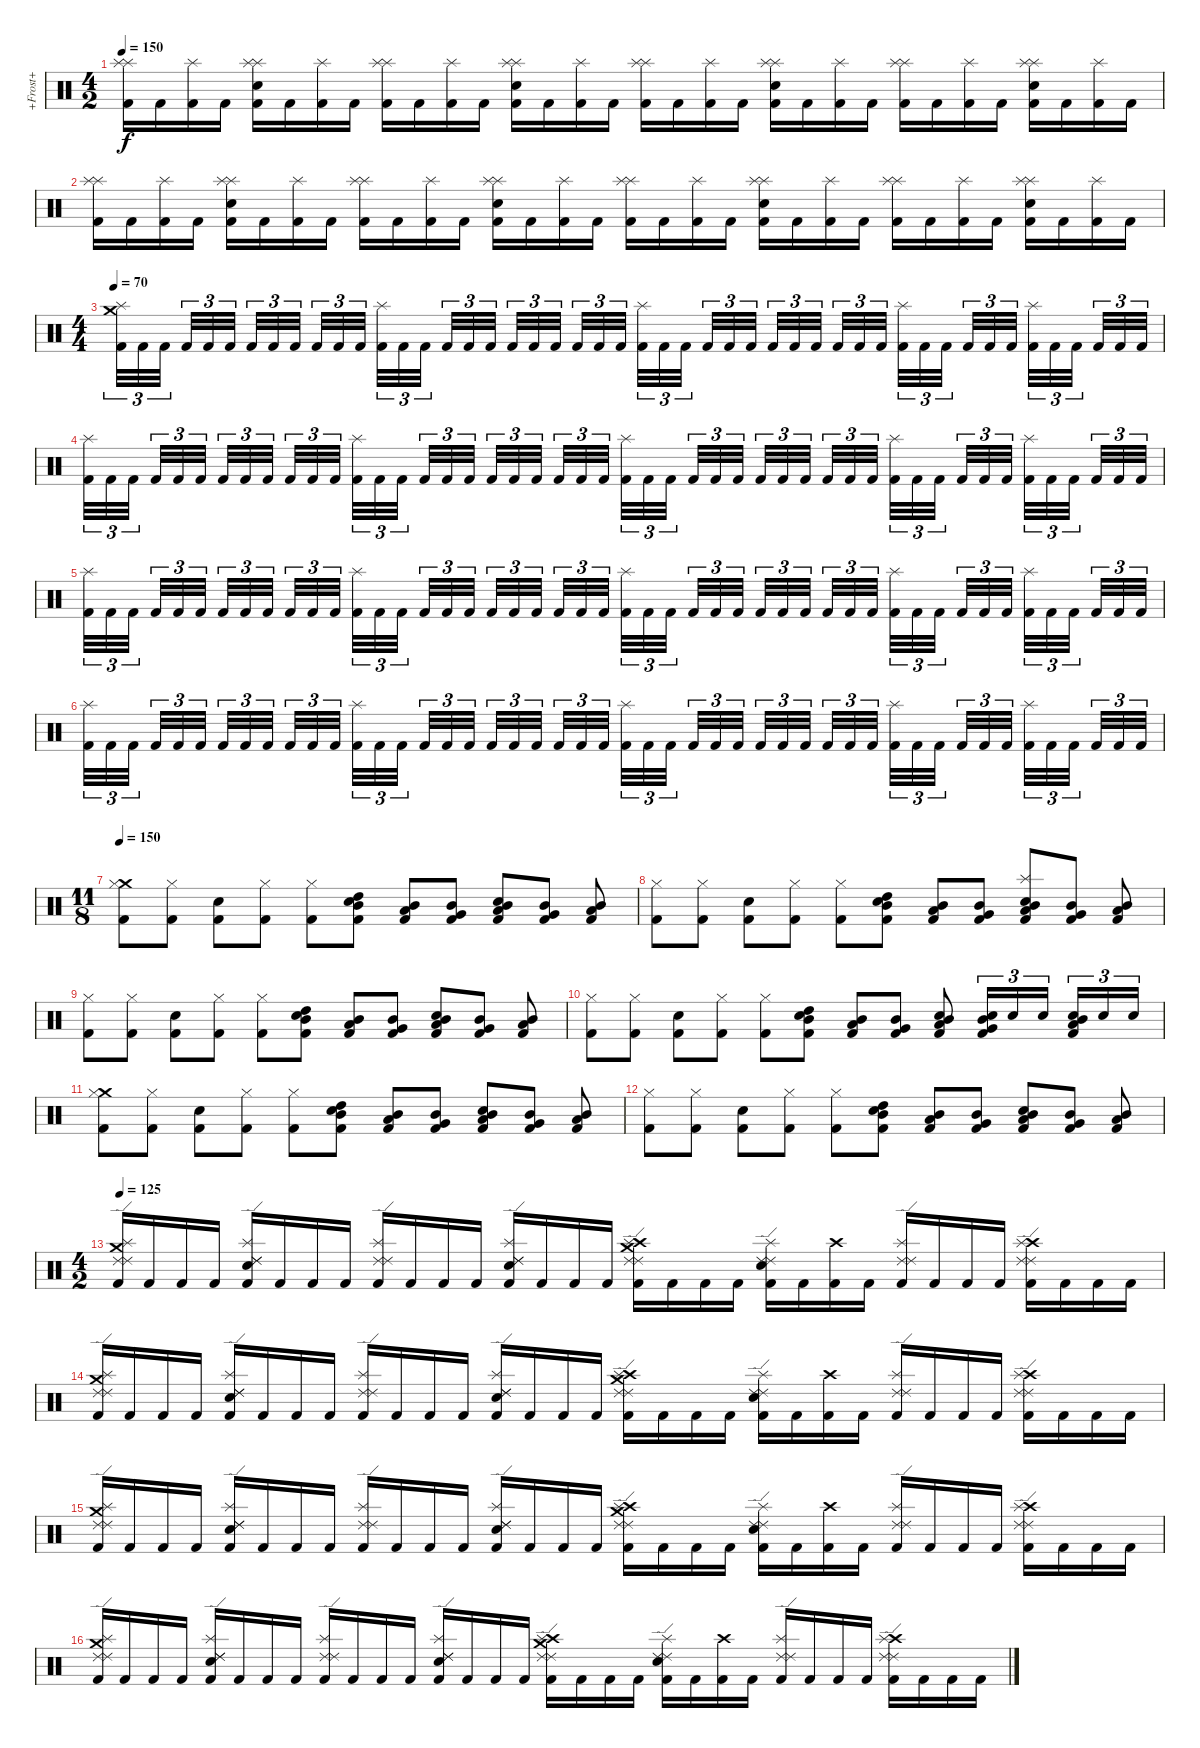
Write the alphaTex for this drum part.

\track ("+Frost+" "+Frost+") {instrument percussion}
\staff {score}
\articulation defaults
\ts (4 2)
\tempo 150
\clef neutral
\ks c
("Kick (hit) 2" "Splash (hit)" "Splash (hit)").16{dy f} "Kick (hit) 2".16 ("Kick (hit) 2" "Splash (hit)").16 "Kick (hit) 2".16 ("Kick (hit) 2" "Splash (hit)" "Splash (hit)" "Electric Snare (hit)").16 "Kick (hit) 2".16 ("Kick (hit) 2" "Splash (hit)").16 "Kick (hit) 2".16 ("Kick (hit) 2" "Splash (hit)" "Splash (hit)").16 "Kick (hit) 2".16 ("Kick (hit) 2" "Splash (hit)").16 "Kick (hit) 2".16 ("Kick (hit) 2" "Splash (hit)" "Splash (hit)" "Electric Snare (hit)").16 "Kick (hit) 2".16 ("Kick (hit) 2" "Splash (hit)").16 "Kick (hit) 2".16 ("Kick (hit) 2" "Splash (hit)" "Splash (hit)").16 "Kick (hit) 2".16 ("Kick (hit) 2" "Splash (hit)").16 "Kick (hit) 2".16 ("Kick (hit) 2" "Splash (hit)" "Splash (hit)" "Electric Snare (hit)").16 "Kick (hit) 2".16 ("Kick (hit) 2" "Splash (hit)").16 "Kick (hit) 2".16 ("Kick (hit) 2" "Splash (hit)" "Splash (hit)").16 "Kick (hit) 2".16 ("Kick (hit) 2" "Splash (hit)").16 "Kick (hit) 2".16 ("Kick (hit) 2" "Splash (hit)" "Splash (hit)" "Electric Snare (hit)").16 "Kick (hit) 2".16 ("Kick (hit) 2" "Splash (hit)").16 "Kick (hit) 2".16 |
("Kick (hit) 2" "Splash (hit)" "Splash (hit)").16 "Kick (hit) 2".16 ("Kick (hit) 2" "Splash (hit)").16 "Kick (hit) 2".16 ("Kick (hit) 2" "Splash (hit)" "Splash (hit)" "Electric Snare (hit)").16 "Kick (hit) 2".16 ("Kick (hit) 2" "Splash (hit)").16 "Kick (hit) 2".16 ("Kick (hit) 2" "Splash (hit)" "Splash (hit)").16 "Kick (hit) 2".16 ("Kick (hit) 2" "Splash (hit)").16 "Kick (hit) 2".16 ("Kick (hit) 2" "Splash (hit)" "Splash (hit)" "Electric Snare (hit)").16 "Kick (hit) 2".16 ("Kick (hit) 2" "Splash (hit)").16 "Kick (hit) 2".16 ("Kick (hit) 2" "Splash (hit)" "Splash (hit)").16 "Kick (hit) 2".16 ("Kick (hit) 2" "Splash (hit)").16 "Kick (hit) 2".16 ("Kick (hit) 2" "Splash (hit)" "Splash (hit)" "Electric Snare (hit)").16 "Kick (hit) 2".16 ("Kick (hit) 2" "Splash (hit)").16 "Kick (hit) 2".16 ("Kick (hit) 2" "Splash (hit)" "Splash (hit)").16 "Kick (hit) 2".16 ("Kick (hit) 2" "Splash (hit)").16 "Kick (hit) 2".16 ("Kick (hit) 2" "Splash (hit)" "Splash (hit)" "Electric Snare (hit)").16 "Kick (hit) 2".16 ("Kick (hit) 2" "Splash (hit)").16 "Kick (hit) 2".16 |
\ts (4 4)
\tempo 70
("Kick (hit) 2" "Crash medium (hit)" "Splash (hit)").32{tu (3 2)} "Kick (hit) 2".32{tu (3 2)} "Kick (hit) 2".32{tu (3 2)} "Kick (hit) 2".32{tu (3 2)} "Kick (hit) 2".32{tu (3 2)} "Kick (hit) 2".32{tu (3 2)} "Kick (hit) 2".32{tu (3 2)} "Kick (hit) 2".32{tu (3 2)} "Kick (hit) 2".32{tu (3 2)} "Kick (hit) 2".32{tu (3 2)} "Kick (hit) 2".32{tu (3 2)} "Kick (hit) 2".32{tu (3 2)} ("Kick (hit) 2" "Splash (hit)").32{tu (3 2)} "Kick (hit) 2".32{tu (3 2)} "Kick (hit) 2".32{tu (3 2)} "Kick (hit) 2".32{tu (3 2)} "Kick (hit) 2".32{tu (3 2)} "Kick (hit) 2".32{tu (3 2)} "Kick (hit) 2".32{tu (3 2)} "Kick (hit) 2".32{tu (3 2)} "Kick (hit) 2".32{tu (3 2)} "Kick (hit) 2".32{tu (3 2)} "Kick (hit) 2".32{tu (3 2)} "Kick (hit) 2".32{tu (3 2)} ("Kick (hit) 2" "Splash (hit)").32{tu (3 2)} "Kick (hit) 2".32{tu (3 2)} "Kick (hit) 2".32{tu (3 2)} "Kick (hit) 2".32{tu (3 2)} "Kick (hit) 2".32{tu (3 2)} "Kick (hit) 2".32{tu (3 2)} "Kick (hit) 2".32{tu (3 2)} "Kick (hit) 2".32{tu (3 2)} "Kick (hit) 2".32{tu (3 2)} "Kick (hit) 2".32{tu (3 2)} "Kick (hit) 2".32{tu (3 2)} "Kick (hit) 2".32{tu (3 2)} ("Kick (hit) 2" "Splash (hit)").32{tu (3 2)} "Kick (hit) 2".32{tu (3 2)} "Kick (hit) 2".32{tu (3 2)} "Kick (hit) 2".32{tu (3 2)} "Kick (hit) 2".32{tu (3 2)} "Kick (hit) 2".32{tu (3 2)} ("Kick (hit) 2" "Splash (hit)").32{tu (3 2)} "Kick (hit) 2".32{tu (3 2)} "Kick (hit) 2".32{tu (3 2)} "Kick (hit) 2".32{tu (3 2)} "Kick (hit) 2".32{tu (3 2)} "Kick (hit) 2".32{tu (3 2)} |
("Kick (hit) 2" "Splash (hit)").32{tu (3 2)} "Kick (hit) 2".32{tu (3 2)} "Kick (hit) 2".32{tu (3 2)} "Kick (hit) 2".32{tu (3 2)} "Kick (hit) 2".32{tu (3 2)} "Kick (hit) 2".32{tu (3 2)} "Kick (hit) 2".32{tu (3 2)} "Kick (hit) 2".32{tu (3 2)} "Kick (hit) 2".32{tu (3 2)} "Kick (hit) 2".32{tu (3 2)} "Kick (hit) 2".32{tu (3 2)} "Kick (hit) 2".32{tu (3 2)} ("Kick (hit) 2" "Splash (hit)").32{tu (3 2)} "Kick (hit) 2".32{tu (3 2)} "Kick (hit) 2".32{tu (3 2)} "Kick (hit) 2".32{tu (3 2)} "Kick (hit) 2".32{tu (3 2)} "Kick (hit) 2".32{tu (3 2)} "Kick (hit) 2".32{tu (3 2)} "Kick (hit) 2".32{tu (3 2)} "Kick (hit) 2".32{tu (3 2)} "Kick (hit) 2".32{tu (3 2)} "Kick (hit) 2".32{tu (3 2)} "Kick (hit) 2".32{tu (3 2)} ("Kick (hit) 2" "Splash (hit)").32{tu (3 2)} "Kick (hit) 2".32{tu (3 2)} "Kick (hit) 2".32{tu (3 2)} "Kick (hit) 2".32{tu (3 2)} "Kick (hit) 2".32{tu (3 2)} "Kick (hit) 2".32{tu (3 2)} "Kick (hit) 2".32{tu (3 2)} "Kick (hit) 2".32{tu (3 2)} "Kick (hit) 2".32{tu (3 2)} "Kick (hit) 2".32{tu (3 2)} "Kick (hit) 2".32{tu (3 2)} "Kick (hit) 2".32{tu (3 2)} ("Kick (hit) 2" "Splash (hit)").32{tu (3 2)} "Kick (hit) 2".32{tu (3 2)} "Kick (hit) 2".32{tu (3 2)} "Kick (hit) 2".32{tu (3 2)} "Kick (hit) 2".32{tu (3 2)} "Kick (hit) 2".32{tu (3 2)} ("Kick (hit) 2" "Splash (hit)").32{tu (3 2)} "Kick (hit) 2".32{tu (3 2)} "Kick (hit) 2".32{tu (3 2)} "Kick (hit) 2".32{tu (3 2)} "Kick (hit) 2".32{tu (3 2)} "Kick (hit) 2".32{tu (3 2)} |
("Kick (hit) 2" "Splash (hit)").32{tu (3 2)} "Kick (hit) 2".32{tu (3 2)} "Kick (hit) 2".32{tu (3 2)} "Kick (hit) 2".32{tu (3 2)} "Kick (hit) 2".32{tu (3 2)} "Kick (hit) 2".32{tu (3 2)} "Kick (hit) 2".32{tu (3 2)} "Kick (hit) 2".32{tu (3 2)} "Kick (hit) 2".32{tu (3 2)} "Kick (hit) 2".32{tu (3 2)} "Kick (hit) 2".32{tu (3 2)} "Kick (hit) 2".32{tu (3 2)} ("Kick (hit) 2" "Splash (hit)").32{tu (3 2)} "Kick (hit) 2".32{tu (3 2)} "Kick (hit) 2".32{tu (3 2)} "Kick (hit) 2".32{tu (3 2)} "Kick (hit) 2".32{tu (3 2)} "Kick (hit) 2".32{tu (3 2)} "Kick (hit) 2".32{tu (3 2)} "Kick (hit) 2".32{tu (3 2)} "Kick (hit) 2".32{tu (3 2)} "Kick (hit) 2".32{tu (3 2)} "Kick (hit) 2".32{tu (3 2)} "Kick (hit) 2".32{tu (3 2)} ("Kick (hit) 2" "Splash (hit)").32{tu (3 2)} "Kick (hit) 2".32{tu (3 2)} "Kick (hit) 2".32{tu (3 2)} "Kick (hit) 2".32{tu (3 2)} "Kick (hit) 2".32{tu (3 2)} "Kick (hit) 2".32{tu (3 2)} "Kick (hit) 2".32{tu (3 2)} "Kick (hit) 2".32{tu (3 2)} "Kick (hit) 2".32{tu (3 2)} "Kick (hit) 2".32{tu (3 2)} "Kick (hit) 2".32{tu (3 2)} "Kick (hit) 2".32{tu (3 2)} ("Kick (hit) 2" "Splash (hit)").32{tu (3 2)} "Kick (hit) 2".32{tu (3 2)} "Kick (hit) 2".32{tu (3 2)} "Kick (hit) 2".32{tu (3 2)} "Kick (hit) 2".32{tu (3 2)} "Kick (hit) 2".32{tu (3 2)} ("Kick (hit) 2" "Splash (hit)").32{tu (3 2)} "Kick (hit) 2".32{tu (3 2)} "Kick (hit) 2".32{tu (3 2)} "Kick (hit) 2".32{tu (3 2)} "Kick (hit) 2".32{tu (3 2)} "Kick (hit) 2".32{tu (3 2)} |
("Kick (hit) 2" "Splash (hit)").32{tu (3 2)} "Kick (hit) 2".32{tu (3 2)} "Kick (hit) 2".32{tu (3 2)} "Kick (hit) 2".32{tu (3 2)} "Kick (hit) 2".32{tu (3 2)} "Kick (hit) 2".32{tu (3 2)} "Kick (hit) 2".32{tu (3 2)} "Kick (hit) 2".32{tu (3 2)} "Kick (hit) 2".32{tu (3 2)} "Kick (hit) 2".32{tu (3 2)} "Kick (hit) 2".32{tu (3 2)} "Kick (hit) 2".32{tu (3 2)} ("Kick (hit) 2" "Splash (hit)").32{tu (3 2)} "Kick (hit) 2".32{tu (3 2)} "Kick (hit) 2".32{tu (3 2)} "Kick (hit) 2".32{tu (3 2)} "Kick (hit) 2".32{tu (3 2)} "Kick (hit) 2".32{tu (3 2)} "Kick (hit) 2".32{tu (3 2)} "Kick (hit) 2".32{tu (3 2)} "Kick (hit) 2".32{tu (3 2)} "Kick (hit) 2".32{tu (3 2)} "Kick (hit) 2".32{tu (3 2)} "Kick (hit) 2".32{tu (3 2)} ("Kick (hit) 2" "Splash (hit)").32{tu (3 2)} "Kick (hit) 2".32{tu (3 2)} "Kick (hit) 2".32{tu (3 2)} "Kick (hit) 2".32{tu (3 2)} "Kick (hit) 2".32{tu (3 2)} "Kick (hit) 2".32{tu (3 2)} "Kick (hit) 2".32{tu (3 2)} "Kick (hit) 2".32{tu (3 2)} "Kick (hit) 2".32{tu (3 2)} "Kick (hit) 2".32{tu (3 2)} "Kick (hit) 2".32{tu (3 2)} "Kick (hit) 2".32{tu (3 2)} ("Kick (hit) 2" "Splash (hit)").32{tu (3 2)} "Kick (hit) 2".32{tu (3 2)} "Kick (hit) 2".32{tu (3 2)} "Kick (hit) 2".32{tu (3 2)} "Kick (hit) 2".32{tu (3 2)} "Kick (hit) 2".32{tu (3 2)} ("Kick (hit) 2" "Splash (hit)").32{tu (3 2)} "Kick (hit) 2".32{tu (3 2)} "Kick (hit) 2".32{tu (3 2)} "Kick (hit) 2".32{tu (3 2)} "Kick (hit) 2".32{tu (3 2)} "Kick (hit) 2".32{tu (3 2)} |
\ts (11 8)
\tempo 115
\tempo 150
("Kick (hit) 2" "Crash medium (hit)" "Hi-Hat (closed)").8 ("Kick (hit) 2" "Hi-Hat (closed)").8 ("Kick (hit) 2" "Electric Snare (hit)").8 ("Kick (hit) 2" "Hi-Hat (closed)").8 ("Kick (hit) 2" "Hi-Hat (closed)").8 ("Kick (hit) 2" "Mid Tom (hit)" "High Tom (hit)" "Electric Snare (hit)").8 ("Kick (hit) 2" "Mid Tom (hit)" "Low Tom (hit)").8 ("Kick (hit) 2" "Mid Tom (hit)" "Very Low Tom (hit)").8 ("Kick (hit) 2" "Mid Tom (hit)" "Low Tom (hit)" "Electric Snare (hit)").8 ("Kick (hit) 2" "Mid Tom (hit)" "Very Low Tom (hit)").8 ("Kick (hit) 2" "Mid Tom (hit)" "Low Floor Tom (hit)").8 |
("Kick (hit) 2" "Hi-Hat (closed)").8 ("Kick (hit) 2" "Hi-Hat (closed)").8 ("Kick (hit) 2" "Electric Snare (hit)").8 ("Kick (hit) 2" "Hi-Hat (closed)").8 ("Kick (hit) 2" "Hi-Hat (closed)").8 ("Kick (hit) 2" "Mid Tom (hit)" "High Tom (hit)" "Electric Snare (hit)").8 ("Kick (hit) 2" "Mid Tom (hit)" "Low Tom (hit)").8 ("Kick (hit) 2" "Mid Tom (hit)" "Very Low Tom (hit)").8 ("Kick (hit) 2" "Splash (hit)" "Mid Tom (hit)" "Low Tom (hit)" "Electric Snare (hit)").8 ("Kick (hit) 2" "Mid Tom (hit)" "Very Low Tom (hit)").8 ("Kick (hit) 2" "Mid Tom (hit)" "Low Floor Tom (hit)").8 |
("Kick (hit) 2" "Hi-Hat (closed)").8 ("Kick (hit) 2" "Hi-Hat (closed)").8 ("Kick (hit) 2" "Electric Snare (hit)").8 ("Kick (hit) 2" "Hi-Hat (closed)").8 ("Kick (hit) 2" "Hi-Hat (closed)").8 ("Kick (hit) 2" "Mid Tom (hit)" "High Tom (hit)" "Electric Snare (hit)").8 ("Kick (hit) 2" "Mid Tom (hit)" "Low Tom (hit)").8 ("Kick (hit) 2" "Mid Tom (hit)" "Very Low Tom (hit)").8 ("Kick (hit) 2" "Mid Tom (hit)" "Low Tom (hit)" "Electric Snare (hit)").8 ("Kick (hit) 2" "Mid Tom (hit)" "Very Low Tom (hit)").8 ("Kick (hit) 2" "Mid Tom (hit)" "Low Floor Tom (hit)").8 |
("Kick (hit) 2" "Hi-Hat (closed)").8 ("Kick (hit) 2" "Hi-Hat (closed)").8 ("Kick (hit) 2" "Electric Snare (hit)").8 ("Kick (hit) 2" "Hi-Hat (closed)").8 ("Kick (hit) 2" "Hi-Hat (closed)").8 ("Kick (hit) 2" "Mid Tom (hit)" "High Tom (hit)" "Electric Snare (hit)").8 ("Kick (hit) 2" "Mid Tom (hit)" "Low Tom (hit)").8 ("Kick (hit) 2" "Mid Tom (hit)" "Very Low Tom (hit)").8 ("Kick (hit) 2" "Mid Tom (hit)" "Low Tom (hit)" "Electric Snare (hit)").8 ("Kick (hit) 2" "Mid Tom (hit)" "Very Low Tom (hit)" "Electric Snare (hit)").16{tu (3 2)} "Electric Snare (hit)".16{tu (3 2)} "Electric Snare (hit)".16{tu (3 2)} ("Kick (hit) 2" "Mid Tom (hit)" "Low Floor Tom (hit)" "Electric Snare (hit)").16{tu (3 2)} "Electric Snare (hit)".16{tu (3 2)} "Electric Snare (hit)".16{tu (3 2)} |
("Kick (hit) 2" "Crash medium (hit)" "Hi-Hat (closed)").8 ("Kick (hit) 2" "Hi-Hat (closed)").8 ("Kick (hit) 2" "Electric Snare (hit)").8 ("Kick (hit) 2" "Hi-Hat (closed)").8 ("Kick (hit) 2" "Hi-Hat (closed)").8 ("Kick (hit) 2" "Mid Tom (hit)" "High Tom (hit)" "Electric Snare (hit)").8 ("Kick (hit) 2" "Mid Tom (hit)" "Low Tom (hit)").8 ("Kick (hit) 2" "Mid Tom (hit)" "Very Low Tom (hit)").8 ("Kick (hit) 2" "Mid Tom (hit)" "Low Tom (hit)" "Electric Snare (hit)").8 ("Kick (hit) 2" "Mid Tom (hit)" "Very Low Tom (hit)").8 ("Kick (hit) 2" "Mid Tom (hit)" "Low Floor Tom (hit)").8 |
("Kick (hit) 2" "Hi-Hat (closed)").8 ("Kick (hit) 2" "Hi-Hat (closed)").8 ("Kick (hit) 2" "Electric Snare (hit)").8 ("Kick (hit) 2" "Hi-Hat (closed)").8 ("Kick (hit) 2" "Hi-Hat (closed)").8 ("Kick (hit) 2" "Mid Tom (hit)" "High Tom (hit)" "Electric Snare (hit)").8 ("Kick (hit) 2" "Mid Tom (hit)" "Low Tom (hit)").8 ("Kick (hit) 2" "Mid Tom (hit)" "Very Low Tom (hit)").8 ("Kick (hit) 2" "Mid Tom (hit)" "Low Tom (hit)" "Electric Snare (hit)").8 ("Kick (hit) 2" "Mid Tom (hit)" "Very Low Tom (hit)").8 ("Kick (hit) 2" "Mid Tom (hit)" "Low Floor Tom (hit)").8 |
\ts (4 2)
\tempo 125
("Kick (hit) 2" "Crash medium (hit)" "Splash (hit)" "Ride (edge) 2" "Ride (edge) 2").16 "Kick (hit) 2".16 "Kick (hit) 2".16 "Kick (hit) 2".16 ("Kick (hit) 2" "Electric Snare (hit)" "Splash (hit)" "Ride (edge) 2" "Ride (edge) 2").16 "Kick (hit) 2".16 "Kick (hit) 2".16 "Kick (hit) 2".16 ("Kick (hit) 2" "Splash (hit)" "Ride (edge) 2" "Ride (edge) 2").16 "Kick (hit) 2".16 "Kick (hit) 2".16 "Kick (hit) 2".16 ("Kick (hit) 2" "Electric Snare (hit)" "Splash (hit)" "Ride (edge) 2" "Ride (edge) 2").16 "Kick (hit) 2".16 "Kick (hit) 2".16 "Kick (hit) 2".16 ("Kick (hit) 2" "Crash high (hit)" "Crash medium (hit)" "Splash (hit)" "Ride (edge) 2" "Ride (edge) 2").16 "Kick (hit) 2".16 "Kick (hit) 2".16 "Kick (hit) 2".16 ("Kick (hit) 2" "Electric Snare (hit)" "Splash (hit)" "Ride (edge) 2" "Ride (edge) 2").16 "Kick (hit) 2".16 ("Kick (hit) 2" "Crash high (hit)").16 "Kick (hit) 2".16 ("Kick (hit) 2" "Splash (hit)" "Ride (edge) 2" "Ride (edge) 2").16 "Kick (hit) 2".16 "Kick (hit) 2".16 "Kick (hit) 2".16 ("Kick (hit) 2" "Crash high (hit)" "Splash (hit)" "Ride (edge) 2" "Ride (edge) 2").16 "Kick (hit) 2".16 "Kick (hit) 2".16 "Kick (hit) 2".16 |
("Kick (hit) 2" "Crash medium (hit)" "Splash (hit)" "Ride (edge) 2" "Ride (edge) 2").16 "Kick (hit) 2".16 "Kick (hit) 2".16 "Kick (hit) 2".16 ("Kick (hit) 2" "Electric Snare (hit)" "Splash (hit)" "Ride (edge) 2" "Ride (edge) 2").16 "Kick (hit) 2".16 "Kick (hit) 2".16 "Kick (hit) 2".16 ("Kick (hit) 2" "Splash (hit)" "Ride (edge) 2" "Ride (edge) 2").16 "Kick (hit) 2".16 "Kick (hit) 2".16 "Kick (hit) 2".16 ("Kick (hit) 2" "Electric Snare (hit)" "Splash (hit)" "Ride (edge) 2" "Ride (edge) 2").16 "Kick (hit) 2".16 "Kick (hit) 2".16 "Kick (hit) 2".16 ("Kick (hit) 2" "Crash high (hit)" "Crash medium (hit)" "Splash (hit)" "Ride (edge) 2" "Ride (edge) 2").16 "Kick (hit) 2".16 "Kick (hit) 2".16 "Kick (hit) 2".16 ("Kick (hit) 2" "Electric Snare (hit)" "Splash (hit)" "Ride (edge) 2" "Ride (edge) 2").16 "Kick (hit) 2".16 ("Kick (hit) 2" "Crash high (hit)").16 "Kick (hit) 2".16 ("Kick (hit) 2" "Splash (hit)" "Ride (edge) 2" "Ride (edge) 2").16 "Kick (hit) 2".16 "Kick (hit) 2".16 "Kick (hit) 2".16 ("Kick (hit) 2" "Crash high (hit)" "Splash (hit)" "Ride (edge) 2" "Ride (edge) 2").16 "Kick (hit) 2".16 "Kick (hit) 2".16 "Kick (hit) 2".16 |
("Kick (hit) 2" "Crash medium (hit)" "Splash (hit)" "Ride (edge) 2" "Ride (edge) 2").16 "Kick (hit) 2".16 "Kick (hit) 2".16 "Kick (hit) 2".16 ("Kick (hit) 2" "Electric Snare (hit)" "Splash (hit)" "Ride (edge) 2" "Ride (edge) 2").16 "Kick (hit) 2".16 "Kick (hit) 2".16 "Kick (hit) 2".16 ("Kick (hit) 2" "Splash (hit)" "Ride (edge) 2" "Ride (edge) 2").16 "Kick (hit) 2".16 "Kick (hit) 2".16 "Kick (hit) 2".16 ("Kick (hit) 2" "Electric Snare (hit)" "Splash (hit)" "Ride (edge) 2" "Ride (edge) 2").16 "Kick (hit) 2".16 "Kick (hit) 2".16 "Kick (hit) 2".16 ("Kick (hit) 2" "Crash high (hit)" "Crash medium (hit)" "Splash (hit)" "Ride (edge) 2" "Ride (edge) 2").16 "Kick (hit) 2".16 "Kick (hit) 2".16 "Kick (hit) 2".16 ("Kick (hit) 2" "Electric Snare (hit)" "Splash (hit)" "Ride (edge) 2" "Ride (edge) 2").16 "Kick (hit) 2".16 ("Kick (hit) 2" "Crash high (hit)").16 "Kick (hit) 2".16 ("Kick (hit) 2" "Splash (hit)" "Ride (edge) 2" "Ride (edge) 2").16 "Kick (hit) 2".16 "Kick (hit) 2".16 "Kick (hit) 2".16 ("Kick (hit) 2" "Crash high (hit)" "Splash (hit)" "Ride (edge) 2" "Ride (edge) 2").16 "Kick (hit) 2".16 "Kick (hit) 2".16 "Kick (hit) 2".16 |
("Kick (hit) 2" "Crash medium (hit)" "Splash (hit)" "Ride (edge) 2" "Ride (edge) 2").16 "Kick (hit) 2".16 "Kick (hit) 2".16 "Kick (hit) 2".16 ("Kick (hit) 2" "Electric Snare (hit)" "Splash (hit)" "Ride (edge) 2" "Ride (edge) 2").16 "Kick (hit) 2".16 "Kick (hit) 2".16 "Kick (hit) 2".16 ("Kick (hit) 2" "Splash (hit)" "Ride (edge) 2" "Ride (edge) 2").16 "Kick (hit) 2".16 "Kick (hit) 2".16 "Kick (hit) 2".16 ("Kick (hit) 2" "Electric Snare (hit)" "Splash (hit)" "Ride (edge) 2" "Ride (edge) 2").16 "Kick (hit) 2".16 "Kick (hit) 2".16 "Kick (hit) 2".16 ("Kick (hit) 2" "Crash high (hit)" "Crash medium (hit)" "Splash (hit)" "Ride (edge) 2" "Ride (edge) 2").16 "Kick (hit) 2".16 "Kick (hit) 2".16 "Kick (hit) 2".16 ("Kick (hit) 2" "Electric Snare (hit)" "Splash (hit)" "Ride (edge) 2" "Ride (edge) 2").16 "Kick (hit) 2".16 ("Kick (hit) 2" "Crash high (hit)").16 "Kick (hit) 2".16 ("Kick (hit) 2" "Splash (hit)" "Ride (edge) 2" "Ride (edge) 2").16 "Kick (hit) 2".16 "Kick (hit) 2".16 "Kick (hit) 2".16 ("Kick (hit) 2" "Crash high (hit)" "Splash (hit)" "Ride (edge) 2" "Ride (edge) 2").16 "Kick (hit) 2".16 "Kick (hit) 2".16 "Kick (hit) 2".16
